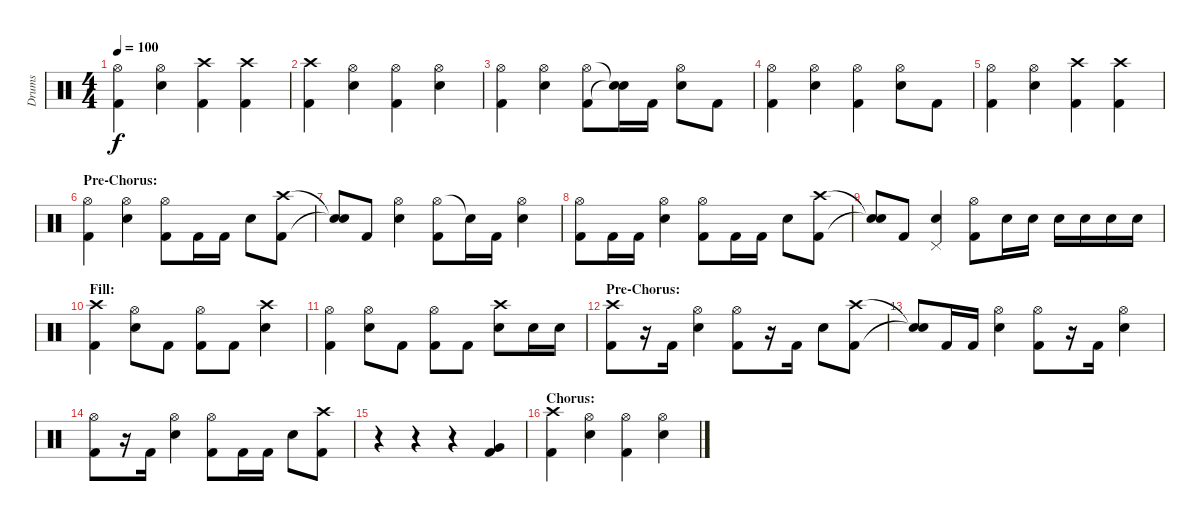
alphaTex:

\track ("Drums" "Drums") {instrument percussion}
\staff {score}
\articulation defaults
\ts (4 4)
\tempo 100
\clef neutral
\ks c
("Hi-Hat (open)" "Kick (hit) 2").4{dy f} ("Hi-Hat (open)" "Electric Snare (hit)").4 ("Crash high (hit)" "Kick (hit) 2").4 ("Crash high (hit)" "Kick (hit) 2").4 |
("Crash high (hit)" "Kick (hit) 2").4 ("Hi-Hat (open)" "Electric Snare (hit)").4 ("Hi-Hat (open)" "Kick (hit) 2").4 ("Hi-Hat (open)" "Electric Snare (hit)").4 |
("Hi-Hat (open)" "Kick (hit) 2").4 ("Hi-Hat (open)" "Electric Snare (hit)").4 ("Hi-Hat (open)" "Kick (hit) 2").8 ("Snare (hit)"{t} "Snare (hit)"{t}).16 "Kick (hit) 2".16 ("Hi-Hat (open)" "Electric Snare (hit)").8 "Kick (hit) 2".8 |
("Hi-Hat (open)" "Kick (hit) 2").4 ("Hi-Hat (open)" "Electric Snare (hit)").4 ("Hi-Hat (open)" "Kick (hit) 2").4 ("Hi-Hat (open)" "Electric Snare (hit)").8 "Kick (hit) 2".8 |
("Hi-Hat (open)" "Kick (hit) 2").4 ("Hi-Hat (open)" "Electric Snare (hit)").4 ("Crash high (hit)" "Kick (hit) 2").4 ("Crash high (hit)" "Kick (hit) 2").4 |
\section ("" "Pre-Chorus:")
("Hi-Hat (open)" "Kick (hit) 2").4 ("Hi-Hat (open)" "Electric Snare (hit)").4 ("Hi-Hat (open)" "Kick (hit) 2").8 "Kick (hit) 2".16 "Kick (hit) 2".16 "Electric Snare (hit)".8 ("Crash high (hit)" "Kick (hit) 2").8 |
("Snare (hit)"{t} "Snare (hit)"{t}).8 "Kick (hit) 2".8 ("Hi-Hat (open)" "Electric Snare (hit)").4 ("Hi-Hat (open)" "Kick (hit) 2").8 "Snare (hit)"{t}.16 "Kick (hit) 2".16 ("Hi-Hat (open)" "Electric Snare (hit)").4 |
("Hi-Hat (open)" "Kick (hit) 2").8 "Kick (hit) 2".16 "Kick (hit) 2".16 ("Hi-Hat (open)" "Electric Snare (hit)").4 ("Hi-Hat (open)" "Kick (hit) 2").8 "Kick (hit) 2".16 "Kick (hit) 2".16 "Electric Snare (hit)".8 ("Crash high (hit)" "Kick (hit) 2").8 |
("Snare (hit)"{t} "Snare (hit)"{t}).8 "Kick (hit) 2".8 ("Pedal Hi-Hat (hit)" "Electric Snare (hit)").4 ("Hi-Hat (open)" "Kick (hit) 2").8 "Electric Snare (hit)".16 "Electric Snare (hit)".16 "Electric Snare (hit)".16 "Electric Snare (hit)".16 "Electric Snare (hit)".16 "Electric Snare (hit)".16 |
\section ("" "Fill:")
("Crash high (hit)" "Kick (hit) 2").4 ("Hi-Hat (open)" "Electric Snare (hit)").8 "Kick (hit) 2".8 ("Hi-Hat (open)" "Kick (hit) 2").8 "Kick (hit) 2".8 ("Crash high (hit)" "Electric Snare (hit)").4 |
("Hi-Hat (open)" "Kick (hit) 2").4 ("Hi-Hat (open)" "Electric Snare (hit)").8 "Kick (hit) 2".8 ("Hi-Hat (open)" "Kick (hit) 2").8 "Kick (hit) 2".8 ("Crash high (hit)" "Electric Snare (hit)").8 "Electric Snare (hit)".16 "Electric Snare (hit)".16 |
\section ("" "Pre-Chorus:")
("Crash high (hit)" "Kick (hit) 2").8 r.16 "Kick (hit) 2".16 ("Hi-Hat (open)" "Electric Snare (hit)").4 ("Hi-Hat (open)" "Kick (hit) 2").8 r.16 "Kick (hit) 2".16 "Electric Snare (hit)".8 ("Crash high (hit)" "Kick (hit) 2").8 |
("Snare (hit)"{t} "Snare (hit)"{t}).8 "Kick (hit) 2".16 "Kick (hit) 2".16 ("Hi-Hat (open)" "Electric Snare (hit)").4 ("Hi-Hat (open)" "Kick (hit) 2").8 r.16 "Kick (hit) 2".16 ("Hi-Hat (open)" "Electric Snare (hit)").4 |
("Hi-Hat (open)" "Kick (hit) 2").8 r.16 "Kick (hit) 2".16 ("Hi-Hat (open)" "Electric Snare (hit)").4 ("Hi-Hat (open)" "Kick (hit) 2").8 "Kick (hit) 2".16 "Kick (hit) 2".16 "Electric Snare (hit)".8 ("Crash high (hit)" "Kick (hit) 2").8 |
r.4 r.4 r.4 ("Very Low Tom (hit)" "Kick (hit) 2").4 |
\section ("" "Chorus:")
("Crash high (hit)" "Kick (hit) 2").4 ("Hi-Hat (open)" "Electric Snare (hit)").4 ("Hi-Hat (open)" "Kick (hit) 2").4 ("Hi-Hat (open)" "Electric Snare (hit)").4
